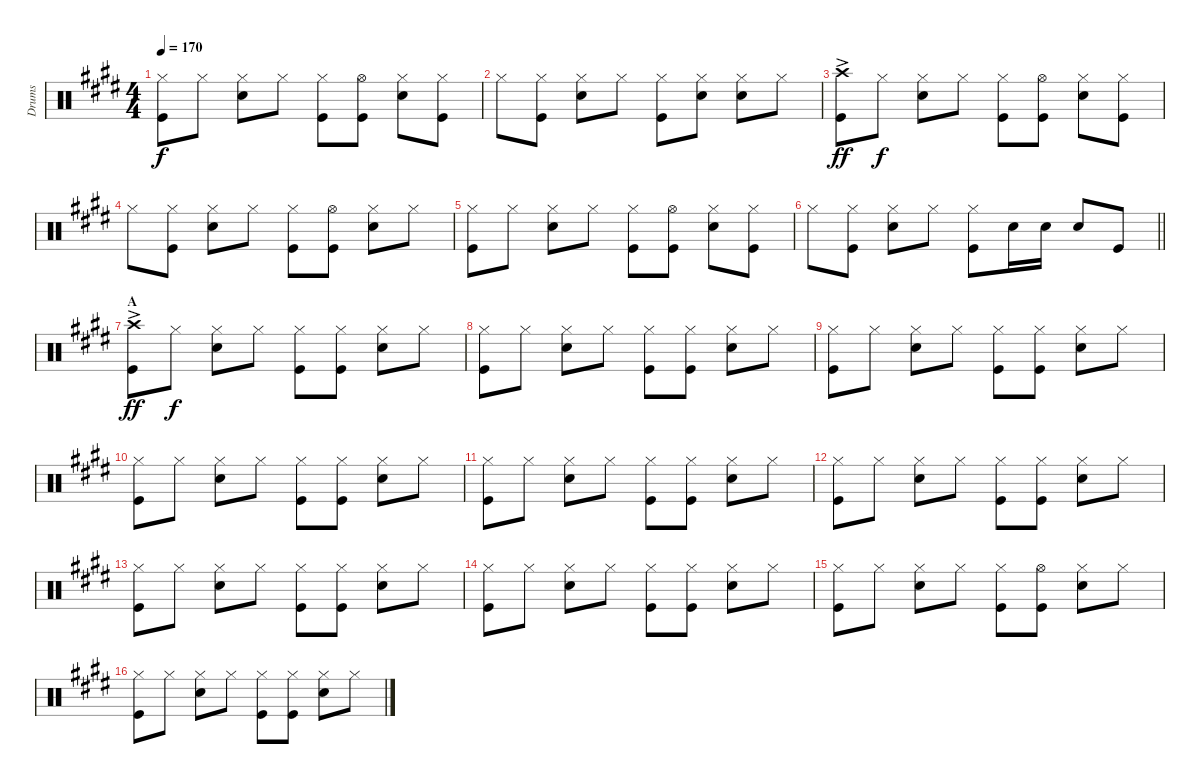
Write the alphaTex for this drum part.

\track ("Drums" "Drums") {instrument percussion}
\staff {score}
\articulation defaults
\ts (4 4)
\tempo 170
\clef neutral
\ks e
("Hi-Hat (closed)" "Kick (hit)").8{dy f} "Hi-Hat (closed)".8 ("Hi-Hat (closed)" "Snare (hit) 2").8 "Hi-Hat (closed)".8 ("Hi-Hat (closed)" "Kick (hit)").8 ("Kick (hit)" "Hi-Hat (open)").8 ("Snare (hit) 2" "Hi-Hat (closed)").8 ("Hi-Hat (closed)" "Kick (hit)").8 |
"Hi-Hat (closed)".8 ("Hi-Hat (closed)" "Kick (hit)").8 ("Hi-Hat (closed)" "Snare (hit) 2").8 "Hi-Hat (closed)".8 ("Hi-Hat (closed)" "Kick (hit)").8 ("Hi-Hat (closed)" "Snare (hit) 2").8 ("Snare (hit) 2" "Hi-Hat (closed)").8 "Hi-Hat (closed)".8 |
("Crash high (hit)"{ac} "Kick (hit)").8{dy ff} "Hi-Hat (closed)".8{dy f} ("Hi-Hat (closed)" "Snare (hit) 2").8 "Hi-Hat (closed)".8 ("Hi-Hat (closed)" "Kick (hit)").8 ("Kick (hit)" "Hi-Hat (open)").8 ("Snare (hit) 2" "Hi-Hat (closed)").8 ("Hi-Hat (closed)" "Kick (hit)").8 |
"Hi-Hat (closed)".8 ("Hi-Hat (closed)" "Kick (hit)").8 ("Hi-Hat (closed)" "Snare (hit) 2").8 "Hi-Hat (closed)".8 ("Hi-Hat (closed)" "Kick (hit)").8 ("Kick (hit)" "Hi-Hat (open)").8 ("Hi-Hat (closed)" "Snare (hit) 2").8 "Hi-Hat (closed)".8 |
("Kick (hit)" "Hi-Hat (closed)").8 "Hi-Hat (closed)".8 ("Hi-Hat (closed)" "Snare (hit) 2").8 "Hi-Hat (closed)".8 ("Hi-Hat (closed)" "Kick (hit)").8 ("Kick (hit)" "Hi-Hat (open)").8 ("Hi-Hat (closed)" "Snare (hit) 2").8 ("Hi-Hat (closed)" "Kick (hit)").8 |
\barLineRight lightlight "Hi-Hat (closed)".8
("Hi-Hat (closed)" "Kick (hit)").8 ("Hi-Hat (closed)" "Snare (hit) 2").8 "Hi-Hat (closed)".8 ("Hi-Hat (closed)" "Kick (hit)").8 "Snare (hit) 2".16 "Snare (hit) 2".16 "Snare (hit) 2".8 "Kick (hit)".8 |
\section ("" "A")
("Crash high (hit)"{ac} "Kick (hit)").8{dy ff} "Hi-Hat (closed)".8{dy f} ("Hi-Hat (closed)" "Snare (hit) 2").8 "Hi-Hat (closed)".8 ("Hi-Hat (closed)" "Kick (hit)").8 ("Kick (hit)" "Hi-Hat (closed)").8 ("Hi-Hat (closed)" "Snare (hit) 2").8 "Hi-Hat (closed)".8 |
("Hi-Hat (closed)" "Kick (hit)").8 "Hi-Hat (closed)".8 ("Hi-Hat (closed)" "Snare (hit) 2").8 "Hi-Hat (closed)".8 ("Hi-Hat (closed)" "Kick (hit)").8 ("Kick (hit)" "Hi-Hat (closed)").8 ("Hi-Hat (closed)" "Snare (hit) 2").8 "Hi-Hat (closed)".8 |
("Hi-Hat (closed)" "Kick (hit)").8 "Hi-Hat (closed)".8 ("Hi-Hat (closed)" "Snare (hit) 2").8 "Hi-Hat (closed)".8 ("Hi-Hat (closed)" "Kick (hit)").8 ("Kick (hit)" "Hi-Hat (closed)").8 ("Hi-Hat (closed)" "Snare (hit) 2").8 "Hi-Hat (closed)".8 |
("Hi-Hat (closed)" "Kick (hit)").8 "Hi-Hat (closed)".8 ("Hi-Hat (closed)" "Snare (hit) 2").8 "Hi-Hat (closed)".8 ("Hi-Hat (closed)" "Kick (hit)").8 ("Kick (hit)" "Hi-Hat (closed)").8 ("Hi-Hat (closed)" "Snare (hit) 2").8 "Hi-Hat (closed)".8 |
("Hi-Hat (closed)" "Kick (hit)").8 "Hi-Hat (closed)".8 ("Hi-Hat (closed)" "Snare (hit) 2").8 "Hi-Hat (closed)".8 ("Hi-Hat (closed)" "Kick (hit)").8 ("Kick (hit)" "Hi-Hat (closed)").8 ("Hi-Hat (closed)" "Snare (hit) 2").8 "Hi-Hat (closed)".8 |
("Hi-Hat (closed)" "Kick (hit)").8 "Hi-Hat (closed)".8 ("Hi-Hat (closed)" "Snare (hit) 2").8 "Hi-Hat (closed)".8 ("Hi-Hat (closed)" "Kick (hit)").8 ("Kick (hit)" "Hi-Hat (closed)").8 ("Hi-Hat (closed)" "Snare (hit) 2").8 "Hi-Hat (closed)".8 |
("Hi-Hat (closed)" "Kick (hit)").8 "Hi-Hat (closed)".8 ("Hi-Hat (closed)" "Snare (hit) 2").8 "Hi-Hat (closed)".8 ("Hi-Hat (closed)" "Kick (hit)").8 ("Kick (hit)" "Hi-Hat (closed)").8 ("Hi-Hat (closed)" "Snare (hit) 2").8 "Hi-Hat (closed)".8 |
("Hi-Hat (closed)" "Kick (hit)").8 "Hi-Hat (closed)".8 ("Hi-Hat (closed)" "Snare (hit) 2").8 "Hi-Hat (closed)".8 ("Hi-Hat (closed)" "Kick (hit)").8 ("Kick (hit)" "Hi-Hat (closed)").8 ("Hi-Hat (closed)" "Snare (hit) 2").8 "Hi-Hat (closed)".8 |
("Hi-Hat (closed)" "Kick (hit)").8 "Hi-Hat (closed)".8 ("Hi-Hat (closed)" "Snare (hit) 2").8 "Hi-Hat (closed)".8 ("Hi-Hat (closed)" "Kick (hit)").8 ("Kick (hit)" "Hi-Hat (open)").8 ("Hi-Hat (closed)" "Snare (hit) 2").8 "Hi-Hat (closed)".8 |
("Hi-Hat (closed)" "Kick (hit)").8 "Hi-Hat (closed)".8 ("Hi-Hat (closed)" "Snare (hit) 2").8 "Hi-Hat (closed)".8 ("Hi-Hat (closed)" "Kick (hit)").8 ("Kick (hit)" "Hi-Hat (closed)").8 ("Hi-Hat (closed)" "Snare (hit) 2").8 "Hi-Hat (closed)".8
